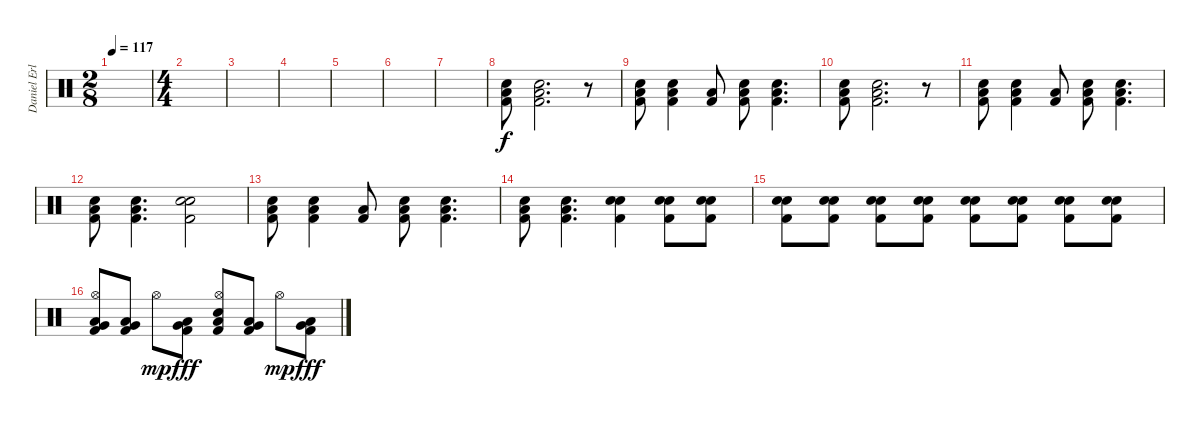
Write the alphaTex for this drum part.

\track ("Daniel Erlandsson" "Daniel Erl") {instrument percussion}
\staff {score}
\articulation defaults
\ts (2 8)
\tempo 117
\clef neutral
\ks c
|
\ts (4 4)
|
|
|
|
|
|
("Snare (hit) 2" "Kick (hit) 2" "Low Floor Tom (hit)").8 ("Snare (hit) 2" "Kick (hit) 2" "Low Floor Tom (hit)").2{d} r.8 |
("Snare (hit) 2" "Kick (hit) 2" "Low Floor Tom (hit)").8 ("Snare (hit) 2" "Kick (hit) 2" "Low Floor Tom (hit)").4 ("Kick (hit) 2" "Low Floor Tom (hit)").8 ("Snare (hit) 2" "Kick (hit) 2" "Low Floor Tom (hit)").8 ("Snare (hit) 2" "Kick (hit) 2" "Low Floor Tom (hit)").4{d} |
("Snare (hit) 2" "Kick (hit) 2" "Low Floor Tom (hit)").8 ("Snare (hit) 2" "Kick (hit) 2" "Low Floor Tom (hit)").2{d} r.8 |
("Snare (hit) 2" "Kick (hit) 2" "Low Floor Tom (hit)").8 ("Snare (hit) 2" "Kick (hit) 2" "Low Floor Tom (hit)").4 ("Kick (hit) 2" "Low Floor Tom (hit)").8 ("Snare (hit) 2" "Kick (hit) 2" "Low Floor Tom (hit)").8 ("Snare (hit) 2" "Kick (hit) 2" "Low Floor Tom (hit)").4{d} |
("Snare (hit) 2" "Kick (hit) 2" "Low Floor Tom (hit)").8 ("Snare (hit) 2" "Kick (hit) 2" "Low Floor Tom (hit)").4{d} ("Electric Snare (hit)" "Snare (hit) 2" "Kick (hit) 2").2 |
("Snare (hit) 2" "Kick (hit) 2" "Low Floor Tom (hit)").8 ("Snare (hit) 2" "Kick (hit) 2" "Low Floor Tom (hit)").4 ("Kick (hit) 2" "Low Floor Tom (hit)").8 ("Snare (hit) 2" "Kick (hit) 2" "Low Floor Tom (hit)").8 ("Snare (hit) 2" "Kick (hit) 2" "Low Floor Tom (hit)").4{d} |
("Snare (hit) 2" "Kick (hit) 2" "Low Floor Tom (hit)").8 ("Snare (hit) 2" "Kick (hit) 2" "Low Floor Tom (hit)").4{d} ("Electric Snare (hit)" "Snare (hit) 2" "Kick (hit) 2").4 ("Electric Snare (hit)" "Snare (hit) 2" "Kick (hit) 2").8 ("Electric Snare (hit)" "Snare (hit) 2" "Kick (hit) 2").8 |
("Electric Snare (hit)" "Snare (hit) 2" "Kick (hit) 2").8 ("Electric Snare (hit)" "Snare (hit) 2" "Kick (hit) 2").8 ("Electric Snare (hit)" "Snare (hit) 2" "Kick (hit) 2").8 ("Electric Snare (hit)" "Snare (hit) 2" "Kick (hit) 2").8 ("Electric Snare (hit)" "Snare (hit) 2" "Kick (hit) 2").8 ("Electric Snare (hit)" "Snare (hit) 2" "Kick (hit) 2").8 ("Electric Snare (hit)" "Snare (hit) 2" "Kick (hit) 2").8 ("Electric Snare (hit)" "Snare (hit) 2" "Kick (hit) 2").8 |
("Hi-Hat (open)" "Very Low Tom (hit)" "Kick (hit) 2" "Low Floor Tom (hit)").8 ("Very Low Tom (hit)" "Kick (hit) 2" "Low Floor Tom (hit)").8 "Hi-Hat (open)".8{dy mp} ("Very Low Tom (hit)" "Kick (hit) 2" "Low Floor Tom (hit)").8{dy fff} ("Hi-Hat (open)" "Snare (hit) 2" "Kick (hit) 2" "Low Tom (hit)").8 ("Very Low Tom (hit)" "Kick (hit) 2" "Low Floor Tom (hit)").8 "Hi-Hat (open)".8{dy mp} ("Very Low Tom (hit)" "Kick (hit) 2" "Low Floor Tom (hit)").8{dy fff}
